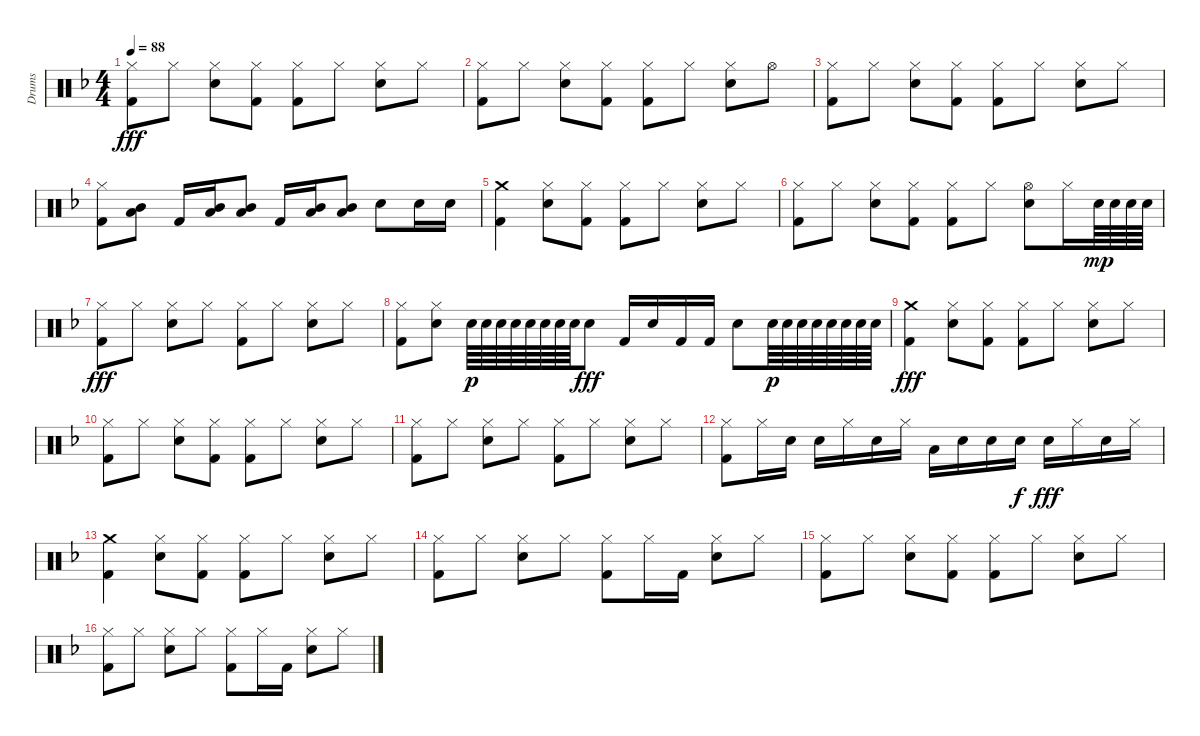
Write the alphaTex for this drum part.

\track ("Drums" "Drums") {instrument percussion}
\staff {score}
\articulation defaults
\ts (4 4)
\tempo 88
\clef neutral
\ks dminor
("Hi-Hat (closed)" "Kick (hit) 2").8{dy fff} "Hi-Hat (closed)".8 ("Hi-Hat (closed)" "Snare (hit) 2").8 ("Hi-Hat (closed)" "Kick (hit) 2").8 ("Hi-Hat (closed)" "Kick (hit) 2").8 "Hi-Hat (closed)".8 ("Hi-Hat (closed)" "Snare (hit) 2").8 "Hi-Hat (closed)".8 |
("Hi-Hat (closed)" "Kick (hit) 2").8 "Hi-Hat (closed)".8 ("Hi-Hat (closed)" "Snare (hit) 2").8 ("Hi-Hat (closed)" "Kick (hit) 2").8 ("Hi-Hat (closed)" "Kick (hit) 2").8 "Hi-Hat (closed)".8 ("Hi-Hat (closed)" "Snare (hit) 2").8 "Hi-Hat (open)".8 |
("Hi-Hat (closed)" "Kick (hit) 2").8 "Hi-Hat (closed)".8 ("Hi-Hat (closed)" "Snare (hit) 2").8 ("Hi-Hat (closed)" "Kick (hit) 2").8 ("Hi-Hat (closed)" "Kick (hit) 2").8 "Hi-Hat (closed)".8 ("Hi-Hat (closed)" "Snare (hit) 2").8 "Hi-Hat (closed)".8 |
("Hi-Hat (closed)" "Kick (hit) 2").8 ("Mid Tom (hit)" "Low Tom (hit)").8 "Kick (hit) 2".16 ("Mid Tom (hit)" "Low Tom (hit)").16 ("Mid Tom (hit)" "Low Tom (hit)").8 "Kick (hit) 2".16 ("Mid Tom (hit)" "Low Tom (hit)").16 ("Mid Tom (hit)" "Low Tom (hit)").8 "Snare (hit) 2".8 "Snare (hit) 2".16 "Snare (hit) 2".16 |
("Crash medium (hit)" "Kick (hit) 2").4 ("Hi-Hat (closed)" "Snare (hit) 2").8 ("Hi-Hat (closed)" "Kick (hit) 2").8 ("Hi-Hat (closed)" "Kick (hit) 2").8 "Hi-Hat (closed)".8 ("Hi-Hat (closed)" "Snare (hit) 2").8 "Hi-Hat (closed)".8 |
("Hi-Hat (closed)" "Kick (hit) 2").8 "Hi-Hat (closed)".8 ("Hi-Hat (closed)" "Snare (hit) 2").8 ("Hi-Hat (closed)" "Kick (hit) 2").8 ("Hi-Hat (closed)" "Kick (hit) 2").8 "Hi-Hat (closed)".8 ("Hi-Hat (open)" "Snare (hit) 2").8 "Hi-Hat (closed)".16 "Snare (hit) 2".64{dy mp} "Snare (hit) 2".64 "Snare (hit) 2".64 "Snare (hit) 2".64 |
("Hi-Hat (closed)" "Kick (hit) 2").8{dy fff} "Hi-Hat (closed)".8 ("Hi-Hat (closed)" "Snare (hit) 2").8 "Hi-Hat (closed)".8 ("Hi-Hat (closed)" "Kick (hit) 2").8 "Hi-Hat (closed)".8 ("Hi-Hat (closed)" "Snare (hit) 2").8 "Hi-Hat (closed)".8 |
("Hi-Hat (closed)" "Kick (hit) 2").8 ("Hi-Hat (closed)" "Snare (hit) 2").8 "Snare (hit) 2".64{dy p} "Snare (hit) 2".64 "Snare (hit) 2".64 "Snare (hit) 2".64 "Snare (hit) 2".64 "Snare (hit) 2".64 "Snare (hit) 2".64 "Snare (hit) 2".64 "Snare (hit) 2".8{dy fff} "Kick (hit) 2".16 "Snare (hit) 2".16 "Kick (hit) 2".16 "Kick (hit) 2".16 "Snare (hit) 2".8 "Snare (hit) 2".64{dy p} "Snare (hit) 2".64 "Snare (hit) 2".64 "Snare (hit) 2".64 "Snare (hit) 2".64 "Snare (hit) 2".64 "Snare (hit) 2".64 "Snare (hit) 2".64 |
("Crash medium (hit)" "Kick (hit) 2").4{dy fff} ("Hi-Hat (closed)" "Snare (hit) 2").8 ("Hi-Hat (closed)" "Kick (hit) 2").8 ("Hi-Hat (closed)" "Kick (hit) 2").8 "Hi-Hat (closed)".8 ("Hi-Hat (closed)" "Snare (hit) 2").8 "Hi-Hat (closed)".8 |
("Hi-Hat (closed)" "Kick (hit) 2").8 "Hi-Hat (closed)".8 ("Hi-Hat (closed)" "Snare (hit) 2").8 ("Hi-Hat (closed)" "Kick (hit) 2").8 ("Hi-Hat (closed)" "Kick (hit) 2").8 "Hi-Hat (closed)".8 ("Hi-Hat (closed)" "Snare (hit) 2").8 "Hi-Hat (closed)".8 |
("Hi-Hat (closed)" "Kick (hit) 2").8 "Hi-Hat (closed)".8 ("Hi-Hat (closed)" "Snare (hit) 2").8 "Hi-Hat (closed)".8 ("Hi-Hat (closed)" "Kick (hit) 2").8 "Hi-Hat (closed)".8 ("Hi-Hat (closed)" "Snare (hit) 2").8 "Hi-Hat (closed)".8 |
("Hi-Hat (closed)" "Kick (hit) 2").8 "Hi-Hat (closed)".16 "Snare (hit) 2".16 "Snare (hit) 2".16 "Hi-Hat (closed)".16 "Snare (hit) 2".16 "Hi-Hat (closed)".16 "Low Tom (hit)".16 "Snare (hit) 2".16 "Snare (hit) 2".16 "Snare (hit) 2".16{dy f} "Snare (hit) 2".16{dy fff} "Hi-Hat (closed)".16 "Snare (hit) 2".16 "Hi-Hat (closed)".16 |
("Crash medium (hit)" "Kick (hit) 2").4 ("Hi-Hat (closed)" "Snare (hit) 2").8 ("Hi-Hat (closed)" "Kick (hit) 2").8 ("Hi-Hat (closed)" "Kick (hit) 2").8 "Hi-Hat (closed)".8 ("Hi-Hat (closed)" "Snare (hit) 2").8 "Hi-Hat (closed)".8 |
("Hi-Hat (closed)" "Kick (hit) 2").8 "Hi-Hat (closed)".8 ("Hi-Hat (closed)" "Snare (hit) 2").8 "Hi-Hat (closed)".8 ("Hi-Hat (closed)" "Kick (hit) 2").8 "Hi-Hat (closed)".16 "Kick (hit) 2".16 ("Hi-Hat (closed)" "Snare (hit) 2").8 "Hi-Hat (closed)".8 |
("Hi-Hat (closed)" "Kick (hit) 2").8 "Hi-Hat (closed)".8 ("Hi-Hat (closed)" "Snare (hit) 2").8 ("Hi-Hat (closed)" "Kick (hit) 2").8 ("Hi-Hat (closed)" "Kick (hit) 2").8 "Hi-Hat (closed)".8 ("Hi-Hat (closed)" "Snare (hit) 2").8 "Hi-Hat (closed)".8 |
("Hi-Hat (closed)" "Kick (hit) 2").8 "Hi-Hat (closed)".8 ("Hi-Hat (closed)" "Snare (hit) 2").8 "Hi-Hat (closed)".8 ("Hi-Hat (closed)" "Kick (hit) 2").8 "Hi-Hat (closed)".16 "Kick (hit) 2".16 ("Hi-Hat (closed)" "Snare (hit) 2").8 "Hi-Hat (closed)".8
